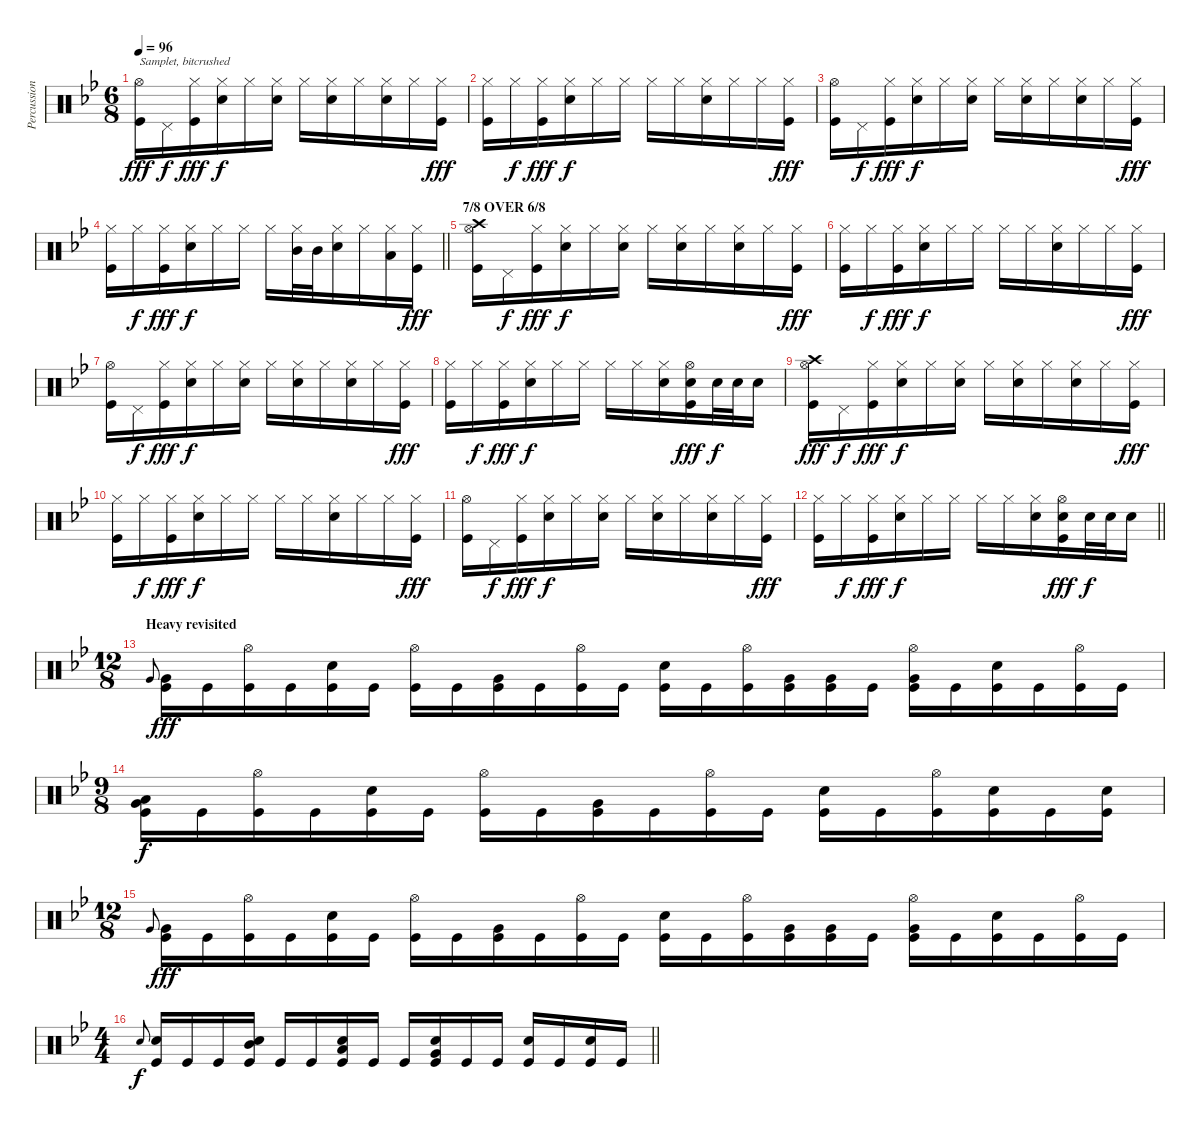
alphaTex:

\track ("Percussion" "Percussion") {instrument percussion}
\staff {score}
\articulation defaults
\ts (6 8)
\tempo 96
\clef neutral
\ks gminor
("Hi-Hat (open)" "Kick (hit)").16{txt "Samplet, bitcrushed" dy fff} "Pedal Hi-Hat (hit)".16{dy f} ("Hi-Hat (closed)" "Kick (hit)").16{dy fff} ("Hi-Hat (closed)" "Snare (hit) 2").16{dy f} "Hi-Hat (closed)".16 ("Hi-Hat (closed)" "Snare (hit) 2").16 "Hi-Hat (closed)".16 ("Hi-Hat (closed)" "Snare (hit) 2").16 "Hi-Hat (closed)".16 ("Hi-Hat (closed)" "Snare (hit) 2").16 "Hi-Hat (closed)".16 ("Hi-Hat (closed)" "Kick (hit)").16{dy fff} |
("Hi-Hat (closed)" "Kick (hit)").16 "Hi-Hat (closed)".16{dy f} ("Hi-Hat (closed)" "Kick (hit)").16{dy fff} ("Hi-Hat (closed)" "Snare (hit) 2").16{dy f} "Hi-Hat (closed)".16 "Hi-Hat (closed)".16 "Hi-Hat (closed)".16 "Hi-Hat (closed)".16 ("Hi-Hat (closed)" "Snare (hit) 2").16 "Hi-Hat (closed)".16 "Hi-Hat (closed)".16 ("Hi-Hat (closed)" "Kick (hit)").16{dy fff} |
("Hi-Hat (open)" "Kick (hit)").16 "Pedal Hi-Hat (hit)".16{dy f} ("Hi-Hat (closed)" "Kick (hit)").16{dy fff} ("Hi-Hat (closed)" "Snare (hit) 2").16{dy f} "Hi-Hat (closed)".16 ("Hi-Hat (closed)" "Snare (hit) 2").16 "Hi-Hat (closed)".16 ("Hi-Hat (closed)" "Snare (hit) 2").16 "Hi-Hat (closed)".16 ("Hi-Hat (closed)" "Snare (hit) 2").16 "Hi-Hat (closed)".16 ("Hi-Hat (closed)" "Kick (hit)").16{dy fff} |
\barLineRight lightlight
("Hi-Hat (closed)" "Kick (hit)").16 "Hi-Hat (closed)".16{dy f} ("Hi-Hat (closed)" "Kick (hit)").16{dy fff} ("Hi-Hat (closed)" "Snare (hit) 2").16{dy f} "Hi-Hat (closed)".16 "Hi-Hat (closed)".16 "Hi-Hat (closed)".16 ("Hi-Hat (closed)" "Mid Tom (hit)").32 "Mid Tom (hit)".32 ("Hi-Hat (closed)" "Snare (hit) 2").16 "Hi-Hat (closed)".16 ("Hi-Hat (closed)" "Low Tom (hit)").16 ("Hi-Hat (closed)" "Kick (hit)").16{dy fff} |
\section ("" "7/8 OVER 6/8")
("Crash high (hit)" "Hi-Hat (open)" "Kick (hit)").16 "Pedal Hi-Hat (hit)".16{dy f} ("Hi-Hat (closed)" "Kick (hit)").16{dy fff} ("Hi-Hat (closed)" "Snare (hit) 2").16{dy f} "Hi-Hat (closed)".16 ("Hi-Hat (closed)" "Snare (hit) 2").16 "Hi-Hat (closed)".16 ("Hi-Hat (closed)" "Snare (hit) 2").16 "Hi-Hat (closed)".16 ("Hi-Hat (closed)" "Snare (hit) 2").16 "Hi-Hat (closed)".16 ("Hi-Hat (closed)" "Kick (hit)").16{dy fff} |
("Hi-Hat (closed)" "Kick (hit)").16 "Hi-Hat (closed)".16{dy f} ("Hi-Hat (closed)" "Kick (hit)").16{dy fff} ("Hi-Hat (closed)" "Snare (hit) 2").16{dy f} "Hi-Hat (closed)".16 "Hi-Hat (closed)".16 "Hi-Hat (closed)".16 "Hi-Hat (closed)".16 ("Hi-Hat (closed)" "Snare (hit) 2").16 "Hi-Hat (closed)".16 "Hi-Hat (closed)".16 ("Hi-Hat (closed)" "Kick (hit)").16{dy fff} |
("Hi-Hat (open)" "Kick (hit)").16 "Pedal Hi-Hat (hit)".16{dy f} ("Hi-Hat (closed)" "Kick (hit)").16{dy fff} ("Hi-Hat (closed)" "Snare (hit) 2").16{dy f} "Hi-Hat (closed)".16 ("Hi-Hat (closed)" "Snare (hit) 2").16 "Hi-Hat (closed)".16 ("Hi-Hat (closed)" "Snare (hit) 2").16 "Hi-Hat (closed)".16 ("Hi-Hat (closed)" "Snare (hit) 2").16 "Hi-Hat (closed)".16 ("Hi-Hat (closed)" "Kick (hit)").16{dy fff} |
("Hi-Hat (closed)" "Kick (hit)").16 "Hi-Hat (closed)".16{dy f} ("Hi-Hat (closed)" "Kick (hit)").16{dy fff} ("Hi-Hat (closed)" "Snare (hit) 2").16{dy f} "Hi-Hat (closed)".16 "Hi-Hat (closed)".16 "Hi-Hat (closed)".16 "Hi-Hat (closed)".16 ("Hi-Hat (closed)" "Snare (hit) 2").16 ("Hi-Hat (open)" "Snare (hit) 2" "Kick (hit)").16{dy fff} "Snare (hit) 2".32{dy f} "Snare (hit) 2".32 "Snare (hit) 2".16 |
("Crash high (hit)" "Hi-Hat (open)" "Kick (hit)").16{dy fff} "Pedal Hi-Hat (hit)".16{dy f} ("Hi-Hat (closed)" "Kick (hit)").16{dy fff} ("Hi-Hat (closed)" "Snare (hit) 2").16{dy f} "Hi-Hat (closed)".16 ("Hi-Hat (closed)" "Snare (hit) 2").16 "Hi-Hat (closed)".16 ("Hi-Hat (closed)" "Snare (hit) 2").16 "Hi-Hat (closed)".16 ("Hi-Hat (closed)" "Snare (hit) 2").16 "Hi-Hat (closed)".16 ("Hi-Hat (closed)" "Kick (hit)").16{dy fff} |
("Hi-Hat (closed)" "Kick (hit)").16 "Hi-Hat (closed)".16{dy f} ("Hi-Hat (closed)" "Kick (hit)").16{dy fff} ("Hi-Hat (closed)" "Snare (hit) 2").16{dy f} "Hi-Hat (closed)".16 "Hi-Hat (closed)".16 "Hi-Hat (closed)".16 "Hi-Hat (closed)".16 ("Hi-Hat (closed)" "Snare (hit) 2").16 "Hi-Hat (closed)".16 "Hi-Hat (closed)".16 ("Hi-Hat (closed)" "Kick (hit)").16{dy fff} |
("Hi-Hat (open)" "Kick (hit)").16 "Pedal Hi-Hat (hit)".16{dy f} ("Hi-Hat (closed)" "Kick (hit)").16{dy fff} ("Hi-Hat (closed)" "Snare (hit) 2").16{dy f} "Hi-Hat (closed)".16 ("Hi-Hat (closed)" "Snare (hit) 2").16 "Hi-Hat (closed)".16 ("Hi-Hat (closed)" "Snare (hit) 2").16 "Hi-Hat (closed)".16 ("Hi-Hat (closed)" "Snare (hit) 2").16 "Hi-Hat (closed)".16 ("Hi-Hat (closed)" "Kick (hit)").16{dy fff} |
\barLineRight lightlight
("Hi-Hat (closed)" "Kick (hit)").16 "Hi-Hat (closed)".16{dy f} ("Hi-Hat (closed)" "Kick (hit)").16{dy fff} ("Hi-Hat (closed)" "Snare (hit) 2").16{dy f} "Hi-Hat (closed)".16 "Hi-Hat (closed)".16 "Hi-Hat (closed)".16 "Hi-Hat (closed)".16 ("Hi-Hat (closed)" "Snare (hit) 2").16 ("Hi-Hat (open)" "Snare (hit) 2" "Kick (hit)").16{dy fff} "Snare (hit) 2".32{dy f} "Snare (hit) 2".32 "Snare (hit) 2".16 |
\ts (12 8)
\section ("" "Heavy revisited")
"Very Low Tom (hit)".8{gr onbeat} ("Very Low Tom (hit)" "Kick (hit)").16{dy fff} "Kick (hit)".16 ("Hi-Hat (open)" "Kick (hit)").16 "Kick (hit)".16 ("Electric Snare (hit)" "Kick (hit)").16 "Kick (hit)".16 ("Hi-Hat (open)" "Kick (hit)").16 "Kick (hit)".16 ("Very Low Tom (hit)" "Kick (hit)").16 "Kick (hit)".16 ("Hi-Hat (open)" "Kick (hit)").16 "Kick (hit)".16 ("Electric Snare (hit)" "Kick (hit)").16 "Kick (hit)".16 ("Hi-Hat (open)" "Kick (hit)").16 ("Very Low Tom (hit)" "Kick (hit)").16 ("Very Low Tom (hit)" "Kick (hit)").16 "Kick (hit)".16 ("Hi-Hat (open)" "Very Low Tom (hit)" "Kick (hit)").16 "Kick (hit)".16 ("Electric Snare (hit)" "Kick (hit)").16 "Kick (hit)".16 ("Hi-Hat (open)" "Kick (hit)").16 "Kick (hit)".16 |
\ts (9 8)
("Low Floor Tom (hit)" "Very Low Tom (hit)" "Kick (hit)").16{dy f} "Kick (hit)".16 ("Hi-Hat (open)" "Kick (hit)").16 "Kick (hit)".16 ("Electric Snare (hit)" "Kick (hit)").16 "Kick (hit)".16 ("Hi-Hat (open)" "Kick (hit)").16 "Kick (hit)".16 ("Very Low Tom (hit)" "Kick (hit)").16 "Kick (hit)".16 ("Hi-Hat (open)" "Kick (hit)").16 "Kick (hit)".16 ("Electric Snare (hit)" "Kick (hit)").16 "Kick (hit)".16 ("Hi-Hat (open)" "Kick (hit)").16 ("Electric Snare (hit)" "Kick (hit)").16 "Kick (hit)".16 ("Electric Snare (hit)" "Kick (hit)").16 |
\ts (12 8)
"Very Low Tom (hit)".8{gr onbeat} ("Very Low Tom (hit)" "Kick (hit)").16{dy fff} "Kick (hit)".16 ("Hi-Hat (open)" "Kick (hit)").16 "Kick (hit)".16 ("Electric Snare (hit)" "Kick (hit)").16 "Kick (hit)".16 ("Hi-Hat (open)" "Kick (hit)").16 "Kick (hit)".16 ("Very Low Tom (hit)" "Kick (hit)").16 "Kick (hit)".16 ("Hi-Hat (open)" "Kick (hit)").16 "Kick (hit)".16 ("Electric Snare (hit)" "Kick (hit)").16 "Kick (hit)".16 ("Hi-Hat (open)" "Kick (hit)").16 ("Very Low Tom (hit)" "Kick (hit)").16 ("Very Low Tom (hit)" "Kick (hit)").16 "Kick (hit)".16 ("Hi-Hat (open)" "Very Low Tom (hit)" "Kick (hit)").16 "Kick (hit)".16 ("Electric Snare (hit)" "Kick (hit)").16 "Kick (hit)".16 ("Hi-Hat (open)" "Kick (hit)").16 "Kick (hit)".16 |
\ts (4 4)
\barLineRight lightlight "Electric Snare (hit)".8{gr onbeat dy f}
("Electric Snare (hit)" "Kick (hit)").16 "Kick (hit)".16 "Kick (hit)".16 ("Mid Tom (hit)" "Electric Snare (hit)" "Kick (hit)").16 "Kick (hit)".16 "Kick (hit)".16 ("Low Tom (hit)" "Electric Snare (hit)" "Kick (hit)").16 "Kick (hit)".16 "Kick (hit)".16 ("Very Low Tom (hit)" "Electric Snare (hit)" "Kick (hit)").16 "Kick (hit)".16 "Kick (hit)".16 ("Electric Snare (hit)" "Kick (hit)").16 "Kick (hit)".16 ("Electric Snare (hit)" "Kick (hit)").16 "Kick (hit)".16
